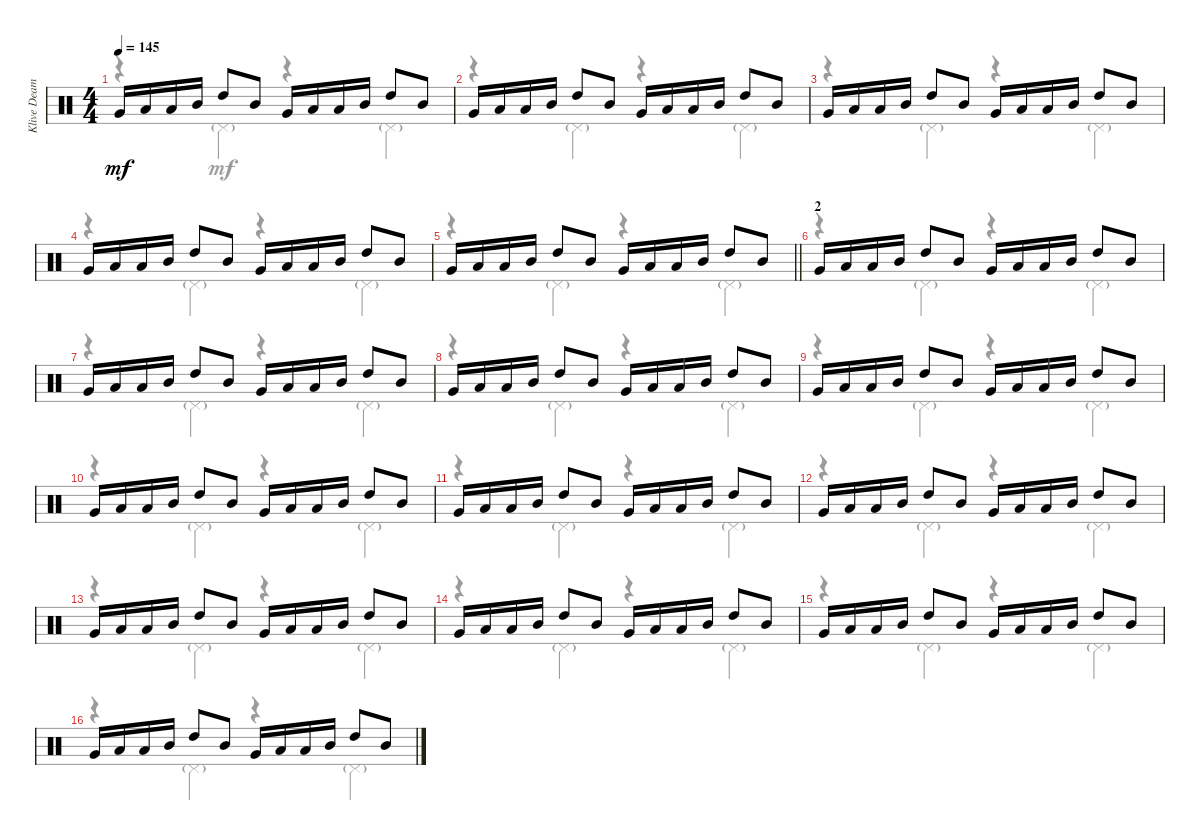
\track ("Klive Deamer" "Klive Deam") {instrument percussion}
\staff {score}
\articulation defaults
\voice
\ts (4 4)
\tempo 145
\clef neutral
\ks c "Very Low Tom (hit)".16{dy mf} "Low Tom (hit)".16 "Low Tom (hit)".16 "Mid Tom (hit)".16 "High Tom (hit)".8 "Mid Tom (hit)".8 "Very Low Tom (hit)".16 "Low Tom (hit)".16 "Low Tom (hit)".16 "Mid Tom (hit)".16 "High Tom (hit)".8 "Mid Tom (hit)".8
|
"Very Low Tom (hit)".16 "Low Tom (hit)".16 "Low Tom (hit)".16 "Mid Tom (hit)".16 "High Tom (hit)".8 "Mid Tom (hit)".8 "Very Low Tom (hit)".16 "Low Tom (hit)".16 "Low Tom (hit)".16 "Mid Tom (hit)".16 "High Tom (hit)".8 "Mid Tom (hit)".8 |
"Very Low Tom (hit)".16 "Low Tom (hit)".16 "Low Tom (hit)".16 "Mid Tom (hit)".16 "High Tom (hit)".8 "Mid Tom (hit)".8 "Very Low Tom (hit)".16 "Low Tom (hit)".16 "Low Tom (hit)".16 "Mid Tom (hit)".16 "High Tom (hit)".8 "Mid Tom (hit)".8 |
"Very Low Tom (hit)".16 "Low Tom (hit)".16 "Low Tom (hit)".16 "Mid Tom (hit)".16 "High Tom (hit)".8 "Mid Tom (hit)".8 "Very Low Tom (hit)".16 "Low Tom (hit)".16 "Low Tom (hit)".16 "Mid Tom (hit)".16 "High Tom (hit)".8 "Mid Tom (hit)".8 |
\barLineRight lightlight "Very Low Tom (hit)".16 "Low Tom (hit)".16 "Low Tom (hit)".16 "Mid Tom (hit)".16 "High Tom (hit)".8 "Mid Tom (hit)".8 "Very Low Tom (hit)".16 "Low Tom (hit)".16 "Low Tom (hit)".16 "Mid Tom (hit)".16 "High Tom (hit)".8 "Mid Tom (hit)".8
|
\section ("" "2")
"Very Low Tom (hit)".16 "Low Tom (hit)".16 "Low Tom (hit)".16 "Mid Tom (hit)".16 "High Tom (hit)".8 "Mid Tom (hit)".8 "Very Low Tom (hit)".16 "Low Tom (hit)".16 "Low Tom (hit)".16 "Mid Tom (hit)".16 "High Tom (hit)".8 "Mid Tom (hit)".8 |
"Very Low Tom (hit)".16 "Low Tom (hit)".16 "Low Tom (hit)".16 "Mid Tom (hit)".16 "High Tom (hit)".8 "Mid Tom (hit)".8 "Very Low Tom (hit)".16 "Low Tom (hit)".16 "Low Tom (hit)".16 "Mid Tom (hit)".16 "High Tom (hit)".8 "Mid Tom (hit)".8 |
"Very Low Tom (hit)".16 "Low Tom (hit)".16 "Low Tom (hit)".16 "Mid Tom (hit)".16 "High Tom (hit)".8 "Mid Tom (hit)".8 "Very Low Tom (hit)".16 "Low Tom (hit)".16 "Low Tom (hit)".16 "Mid Tom (hit)".16 "High Tom (hit)".8 "Mid Tom (hit)".8 |
"Very Low Tom (hit)".16 "Low Tom (hit)".16 "Low Tom (hit)".16 "Mid Tom (hit)".16 "High Tom (hit)".8 "Mid Tom (hit)".8 "Very Low Tom (hit)".16 "Low Tom (hit)".16 "Low Tom (hit)".16 "Mid Tom (hit)".16 "High Tom (hit)".8 "Mid Tom (hit)".8 |
"Very Low Tom (hit)".16 "Low Tom (hit)".16 "Low Tom (hit)".16 "Mid Tom (hit)".16 "High Tom (hit)".8 "Mid Tom (hit)".8 "Very Low Tom (hit)".16 "Low Tom (hit)".16 "Low Tom (hit)".16 "Mid Tom (hit)".16 "High Tom (hit)".8 "Mid Tom (hit)".8 |
"Very Low Tom (hit)".16 "Low Tom (hit)".16 "Low Tom (hit)".16 "Mid Tom (hit)".16 "High Tom (hit)".8 "Mid Tom (hit)".8 "Very Low Tom (hit)".16 "Low Tom (hit)".16 "Low Tom (hit)".16 "Mid Tom (hit)".16 "High Tom (hit)".8 "Mid Tom (hit)".8 |
"Very Low Tom (hit)".16 "Low Tom (hit)".16 "Low Tom (hit)".16 "Mid Tom (hit)".16 "High Tom (hit)".8 "Mid Tom (hit)".8 "Very Low Tom (hit)".16 "Low Tom (hit)".16 "Low Tom (hit)".16 "Mid Tom (hit)".16 "High Tom (hit)".8 "Mid Tom (hit)".8 |
"Very Low Tom (hit)".16 "Low Tom (hit)".16 "Low Tom (hit)".16 "Mid Tom (hit)".16 "High Tom (hit)".8 "Mid Tom (hit)".8 "Very Low Tom (hit)".16 "Low Tom (hit)".16 "Low Tom (hit)".16 "Mid Tom (hit)".16 "High Tom (hit)".8 "Mid Tom (hit)".8 |
"Very Low Tom (hit)".16 "Low Tom (hit)".16 "Low Tom (hit)".16 "Mid Tom (hit)".16 "High Tom (hit)".8 "Mid Tom (hit)".8 "Very Low Tom (hit)".16 "Low Tom (hit)".16 "Low Tom (hit)".16 "Mid Tom (hit)".16 "High Tom (hit)".8 "Mid Tom (hit)".8 |
"Very Low Tom (hit)".16 "Low Tom (hit)".16 "Low Tom (hit)".16 "Mid Tom (hit)".16 "High Tom (hit)".8 "Mid Tom (hit)".8 "Very Low Tom (hit)".16 "Low Tom (hit)".16 "Low Tom (hit)".16 "Mid Tom (hit)".16 "High Tom (hit)".8 "Mid Tom (hit)".8 |
"Very Low Tom (hit)".16 "Low Tom (hit)".16 "Low Tom (hit)".16 "Mid Tom (hit)".16 "High Tom (hit)".8 "Mid Tom (hit)".8 "Very Low Tom (hit)".16 "Low Tom (hit)".16 "Low Tom (hit)".16 "Mid Tom (hit)".16 "High Tom (hit)".8 "Mid Tom (hit)".8
\voice
\clef neutral
\ottava regular
\simile none
\ks c
r.4{dy mf} "Pedal Hi-Hat (hit)"{g}.4 r.4 "Pedal Hi-Hat (hit)"{g}.4 |
r.4 "Pedal Hi-Hat (hit)"{g}.4 r.4 "Pedal Hi-Hat (hit)"{g}.4 |
r.4 "Pedal Hi-Hat (hit)"{g}.4 r.4 "Pedal Hi-Hat (hit)"{g}.4 |
r.4 "Pedal Hi-Hat (hit)"{g}.4 r.4 "Pedal Hi-Hat (hit)"{g}.4 |
\barLineRight lightlight
r.4 "Pedal Hi-Hat (hit)"{g}.4 r.4 "Pedal Hi-Hat (hit)"{g}.4 |
r.4 "Pedal Hi-Hat (hit)"{g}.4 r.4 "Pedal Hi-Hat (hit)"{g}.4 |
r.4 "Pedal Hi-Hat (hit)"{g}.4 r.4 "Pedal Hi-Hat (hit)"{g}.4 |
r.4 "Pedal Hi-Hat (hit)"{g}.4 r.4 "Pedal Hi-Hat (hit)"{g}.4 |
r.4 "Pedal Hi-Hat (hit)"{g}.4 r.4 "Pedal Hi-Hat (hit)"{g}.4 |
r.4 "Pedal Hi-Hat (hit)"{g}.4 r.4 "Pedal Hi-Hat (hit)"{g}.4 |
r.4 "Pedal Hi-Hat (hit)"{g}.4 r.4 "Pedal Hi-Hat (hit)"{g}.4 |
r.4 "Pedal Hi-Hat (hit)"{g}.4 r.4 "Pedal Hi-Hat (hit)"{g}.4 |
r.4 "Pedal Hi-Hat (hit)"{g}.4 r.4 "Pedal Hi-Hat (hit)"{g}.4 |
r.4 "Pedal Hi-Hat (hit)"{g}.4 r.4 "Pedal Hi-Hat (hit)"{g}.4 |
r.4 "Pedal Hi-Hat (hit)"{g}.4 r.4 "Pedal Hi-Hat (hit)"{g}.4 |
r.4 "Pedal Hi-Hat (hit)"{g}.4 r.4 "Pedal Hi-Hat (hit)"{g}.4
